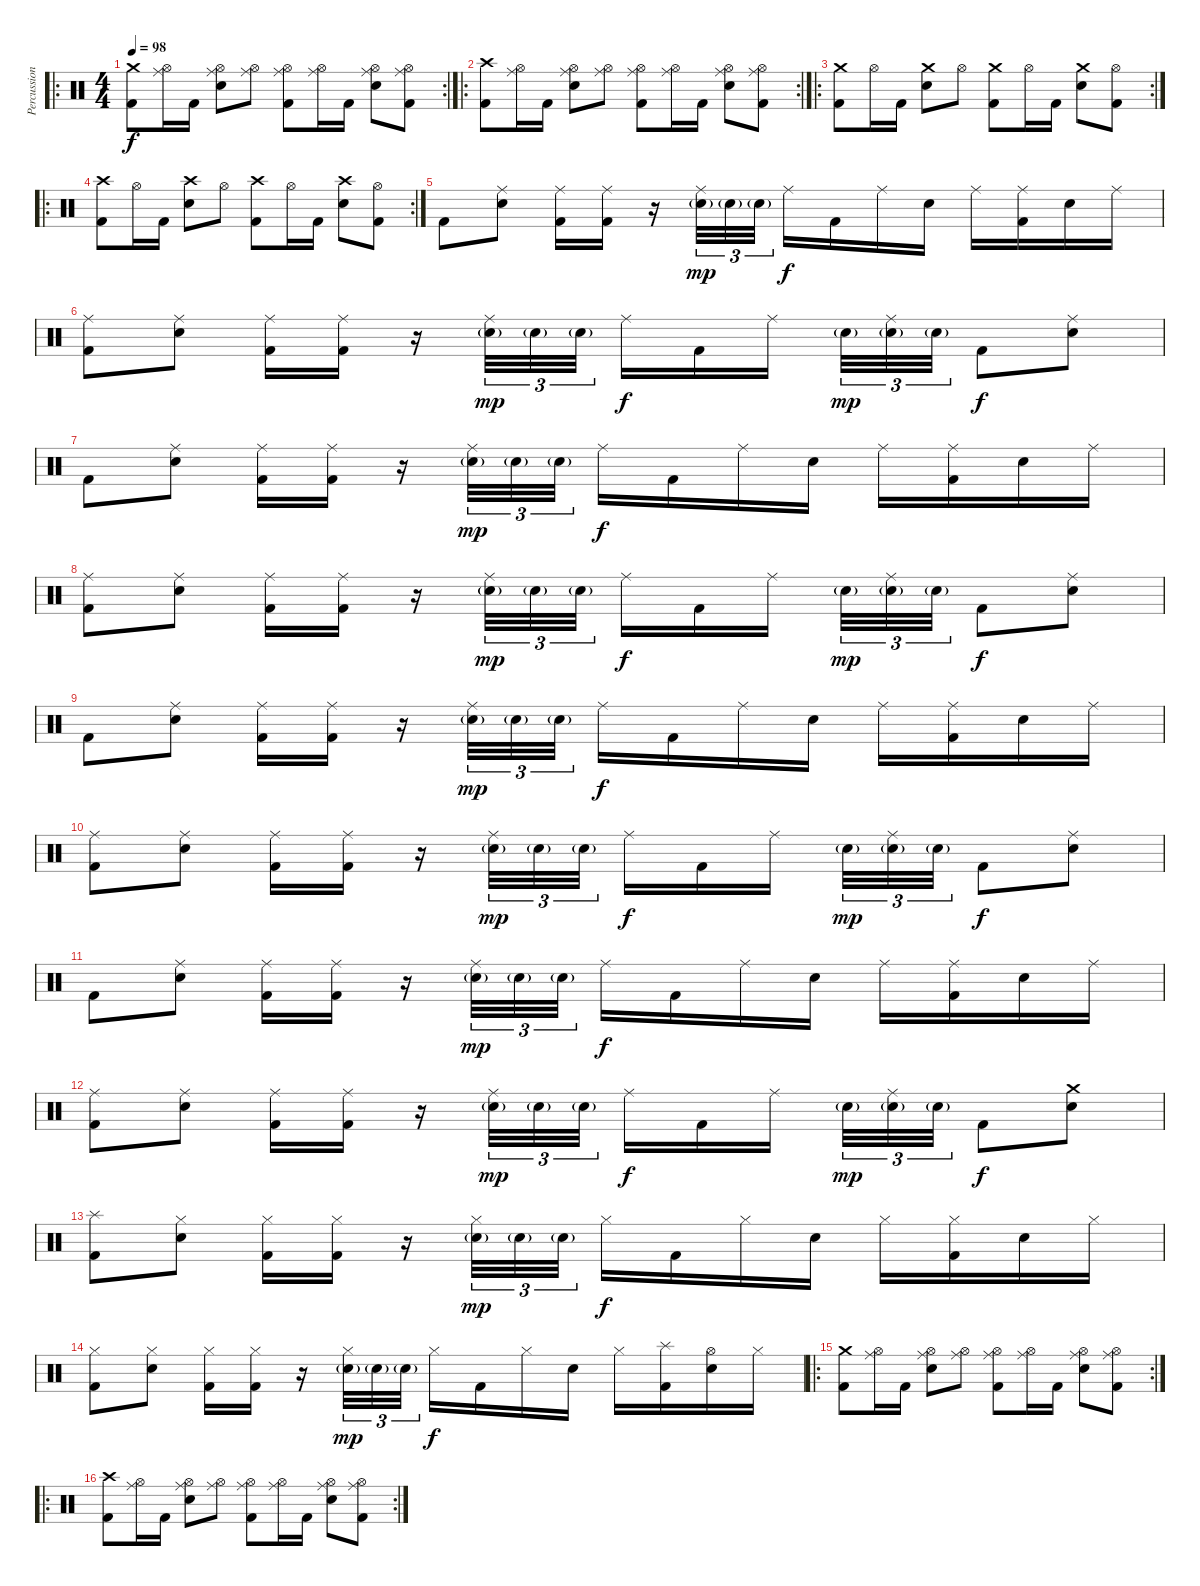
\track ("Percussion" "Percussion") {instrument percussion}
\staff {score}
\articulation defaults
\ro
\rc 2
\ts (4 4)
\tempo 98
\clef neutral
\ks c
("Crash medium (hit)" "Kick (hit) 2").8{dy f} ("Hi-Hat (open)" "Ride (middle)").16 "Kick (hit) 2".16 ("Hi-Hat (open)" "Ride (middle)" "Electric Snare (hit)").8 ("Hi-Hat (open)" "Ride (middle)").8 ("Hi-Hat (open)" "Ride (middle)" "Kick (hit) 2").8 ("Hi-Hat (open)" "Ride (middle)").16 "Kick (hit) 2".16 ("Hi-Hat (open)" "Ride (middle)" "Electric Snare (hit)").8 ("Hi-Hat (open)" "Ride (middle)" "Kick (hit) 2").8 |
\ro
\rc 2
("Crash high (hit)" "Kick (hit) 2").8 ("Hi-Hat (open)" "Ride (middle)").16 "Kick (hit) 2".16 ("Hi-Hat (open)" "Ride (middle)" "Electric Snare (hit)").8 ("Hi-Hat (open)" "Ride (middle)").8 ("Hi-Hat (open)" "Ride (middle)" "Kick (hit) 2").8 ("Hi-Hat (open)" "Ride (middle)").16 "Kick (hit) 2".16 ("Hi-Hat (open)" "Ride (middle)" "Electric Snare (hit)").8 ("Hi-Hat (open)" "Ride (middle)" "Kick (hit) 2").8 |
\ro
\rc 2
("Crash medium (hit)" "Kick (hit) 2").8 "Hi-Hat (open)".16 "Kick (hit) 2".16 ("Crash medium (hit)" "Electric Snare (hit)").8 "Hi-Hat (open)".8 ("Crash medium (hit)" "Kick (hit) 2").8 "Hi-Hat (open)".16 "Kick (hit) 2".16 ("Crash medium (hit)" "Electric Snare (hit)").8 ("Hi-Hat (open)" "Kick (hit) 2").8 |
\ro
\rc 2
("Crash high (hit)" "Kick (hit) 2").8 "Hi-Hat (open)".16 "Kick (hit) 2".16 ("Crash high (hit)" "Electric Snare (hit)").8 "Hi-Hat (open)".8 ("Crash high (hit)" "Kick (hit) 2").8 "Hi-Hat (open)".16 "Kick (hit) 2".16 ("Crash high (hit)" "Electric Snare (hit)").8 ("Hi-Hat (open)" "Kick (hit) 2").8 |
"Kick (hit) 2".8 ("Ride (middle)" "Electric Snare (hit)").8 ("Ride (middle)" "Kick (hit) 2").16 ("Ride (middle)" "Kick (hit) 2").16 r.16 ("Ride (middle)" "Electric Snare (hit)"{g}).32{tu (3 2) dy mp} "Electric Snare (hit)"{g}.32{tu (3 2)} "Electric Snare (hit)"{g}.32{tu (3 2)} "Ride (middle)".16{dy f} "Kick (hit) 2".16 "Ride (middle)".16 "Electric Snare (hit)".16 "Ride (middle)".16 ("Ride (middle)" "Kick (hit) 2").16 "Electric Snare (hit)".16 "Ride (middle)".16 |
("Ride (middle)" "Kick (hit) 2").8 ("Ride (middle)" "Electric Snare (hit)").8 ("Ride (middle)" "Kick (hit) 2").16 ("Ride (middle)" "Kick (hit) 2").16 r.16 ("Ride (middle)" "Electric Snare (hit)"{g}).32{tu (3 2) dy mp} "Electric Snare (hit)"{g}.32{tu (3 2)} "Electric Snare (hit)"{g}.32{tu (3 2)} "Ride (middle)".16{dy f} "Kick (hit) 2".16 "Ride (middle)".16 "Electric Snare (hit)"{g}.32{tu (3 2) dy mp} ("Ride (middle)" "Electric Snare (hit)"{g}).32{tu (3 2)} "Electric Snare (hit)"{g}.32{tu (3 2)} "Kick (hit) 2".8{dy f} ("Ride (middle)" "Electric Snare (hit)").8 |
"Kick (hit) 2".8 ("Ride (middle)" "Electric Snare (hit)").8 ("Ride (middle)" "Kick (hit) 2").16 ("Ride (middle)" "Kick (hit) 2").16 r.16 ("Ride (middle)" "Electric Snare (hit)"{g}).32{tu (3 2) dy mp} "Electric Snare (hit)"{g}.32{tu (3 2)} "Electric Snare (hit)"{g}.32{tu (3 2)} "Ride (middle)".16{dy f} "Kick (hit) 2".16 "Ride (middle)".16 "Electric Snare (hit)".16 "Ride (middle)".16 ("Ride (middle)" "Kick (hit) 2").16 "Electric Snare (hit)".16 "Ride (middle)".16 |
("Ride (middle)" "Kick (hit) 2").8 ("Ride (middle)" "Electric Snare (hit)").8 ("Ride (middle)" "Kick (hit) 2").16 ("Ride (middle)" "Kick (hit) 2").16 r.16 ("Ride (middle)" "Electric Snare (hit)"{g}).32{tu (3 2) dy mp} "Electric Snare (hit)"{g}.32{tu (3 2)} "Electric Snare (hit)"{g}.32{tu (3 2)} "Ride (middle)".16{dy f} "Kick (hit) 2".16 "Ride (middle)".16 "Electric Snare (hit)"{g}.32{tu (3 2) dy mp} ("Ride (middle)" "Electric Snare (hit)"{g}).32{tu (3 2)} "Electric Snare (hit)"{g}.32{tu (3 2)} "Kick (hit) 2".8{dy f} ("Ride (middle)" "Electric Snare (hit)").8 |
"Kick (hit) 2".8 ("Ride (middle)" "Electric Snare (hit)").8 ("Ride (middle)" "Kick (hit) 2").16 ("Ride (middle)" "Kick (hit) 2").16 r.16 ("Ride (middle)" "Electric Snare (hit)"{g}).32{tu (3 2) dy mp} "Electric Snare (hit)"{g}.32{tu (3 2)} "Electric Snare (hit)"{g}.32{tu (3 2)} "Ride (middle)".16{dy f} "Kick (hit) 2".16 "Ride (middle)".16 "Electric Snare (hit)".16 "Ride (middle)".16 ("Ride (middle)" "Kick (hit) 2").16 "Electric Snare (hit)".16 "Ride (middle)".16 |
("Ride (middle)" "Kick (hit) 2").8 ("Ride (middle)" "Electric Snare (hit)").8 ("Ride (middle)" "Kick (hit) 2").16 ("Ride (middle)" "Kick (hit) 2").16 r.16 ("Ride (middle)" "Electric Snare (hit)"{g}).32{tu (3 2) dy mp} "Electric Snare (hit)"{g}.32{tu (3 2)} "Electric Snare (hit)"{g}.32{tu (3 2)} "Ride (middle)".16{dy f} "Kick (hit) 2".16 "Ride (middle)".16 "Electric Snare (hit)"{g}.32{tu (3 2) dy mp} ("Ride (middle)" "Electric Snare (hit)"{g}).32{tu (3 2)} "Electric Snare (hit)"{g}.32{tu (3 2)} "Kick (hit) 2".8{dy f} ("Ride (middle)" "Electric Snare (hit)").8 |
"Kick (hit) 2".8 ("Ride (middle)" "Electric Snare (hit)").8 ("Ride (middle)" "Kick (hit) 2").16 ("Ride (middle)" "Kick (hit) 2").16 r.16 ("Ride (middle)" "Electric Snare (hit)"{g}).32{tu (3 2) dy mp} "Electric Snare (hit)"{g}.32{tu (3 2)} "Electric Snare (hit)"{g}.32{tu (3 2)} "Ride (middle)".16{dy f} "Kick (hit) 2".16 "Ride (middle)".16 "Electric Snare (hit)".16 "Ride (middle)".16 ("Ride (middle)" "Kick (hit) 2").16 "Electric Snare (hit)".16 "Ride (middle)".16 |
("Ride (middle)" "Kick (hit) 2").8 ("Ride (middle)" "Electric Snare (hit)").8 ("Ride (middle)" "Kick (hit) 2").16 ("Ride (middle)" "Kick (hit) 2").16 r.16 ("Ride (middle)" "Electric Snare (hit)"{g}).32{tu (3 2) dy mp} "Electric Snare (hit)"{g}.32{tu (3 2)} "Electric Snare (hit)"{g}.32{tu (3 2)} "Ride (middle)".16{dy f} "Kick (hit) 2".16 "Ride (middle)".16 "Electric Snare (hit)"{g}.32{tu (3 2) dy mp} ("Ride (middle)" "Electric Snare (hit)"{g}).32{tu (3 2)} "Electric Snare (hit)"{g}.32{tu (3 2)} "Kick (hit) 2".8{dy f} ("Crash medium (hit)" "Electric Snare (hit)").8 |
("Splash (hit)" "Kick (hit) 2").8 ("Hi-Hat (closed)" "Electric Snare (hit)").8 ("Hi-Hat (closed)" "Kick (hit) 2").16 ("Hi-Hat (closed)" "Kick (hit) 2").16 r.16 ("Hi-Hat (closed)" "Electric Snare (hit)"{g}).32{tu (3 2) dy mp} "Electric Snare (hit)"{g}.32{tu (3 2)} "Electric Snare (hit)"{g}.32{tu (3 2)} "Hi-Hat (closed)".16{dy f} "Kick (hit) 2".16 "Hi-Hat (closed)".16 "Electric Snare (hit)".16 "Hi-Hat (closed)".16 ("Hi-Hat (closed)" "Kick (hit) 2").16 "Electric Snare (hit)".16 "Hi-Hat (closed)".16 |
("Hi-Hat (closed)" "Kick (hit) 2").8 ("Hi-Hat (closed)" "Electric Snare (hit)").8 ("Hi-Hat (closed)" "Kick (hit) 2").16 ("Hi-Hat (closed)" "Kick (hit) 2").16 r.16 ("Hi-Hat (closed)" "Electric Snare (hit)"{g}).32{tu (3 2) dy mp} "Electric Snare (hit)"{g}.32{tu (3 2)} "Electric Snare (hit)"{g}.32{tu (3 2)} "Hi-Hat (closed)".16{dy f} "Kick (hit) 2".16 "Hi-Hat (closed)".16 "Electric Snare (hit)".16 "Hi-Hat (closed)".16 ("Splash (hit)" "Kick (hit) 2").16 ("Hi-Hat (open)" "Electric Snare (hit)").16 "Hi-Hat (closed)".16 |
\ro
\rc 2
("Crash medium (hit)" "Kick (hit) 2").8 ("Hi-Hat (open)" "Ride (middle)").16 "Kick (hit) 2".16 ("Hi-Hat (open)" "Ride (middle)" "Electric Snare (hit)").8 ("Hi-Hat (open)" "Ride (middle)").8 ("Hi-Hat (open)" "Ride (middle)" "Kick (hit) 2").8 ("Hi-Hat (open)" "Ride (middle)").16 "Kick (hit) 2".16 ("Hi-Hat (open)" "Ride (middle)" "Electric Snare (hit)").8 ("Hi-Hat (open)" "Ride (middle)" "Kick (hit) 2").8 |
\ro
\rc 2
("Crash high (hit)" "Kick (hit) 2").8 ("Hi-Hat (open)" "Ride (middle)").16 "Kick (hit) 2".16 ("Hi-Hat (open)" "Ride (middle)" "Electric Snare (hit)").8 ("Hi-Hat (open)" "Ride (middle)").8 ("Hi-Hat (open)" "Ride (middle)" "Kick (hit) 2").8 ("Hi-Hat (open)" "Ride (middle)").16 "Kick (hit) 2".16 ("Hi-Hat (open)" "Ride (middle)" "Electric Snare (hit)").8 ("Hi-Hat (open)" "Ride (middle)" "Kick (hit) 2").8
